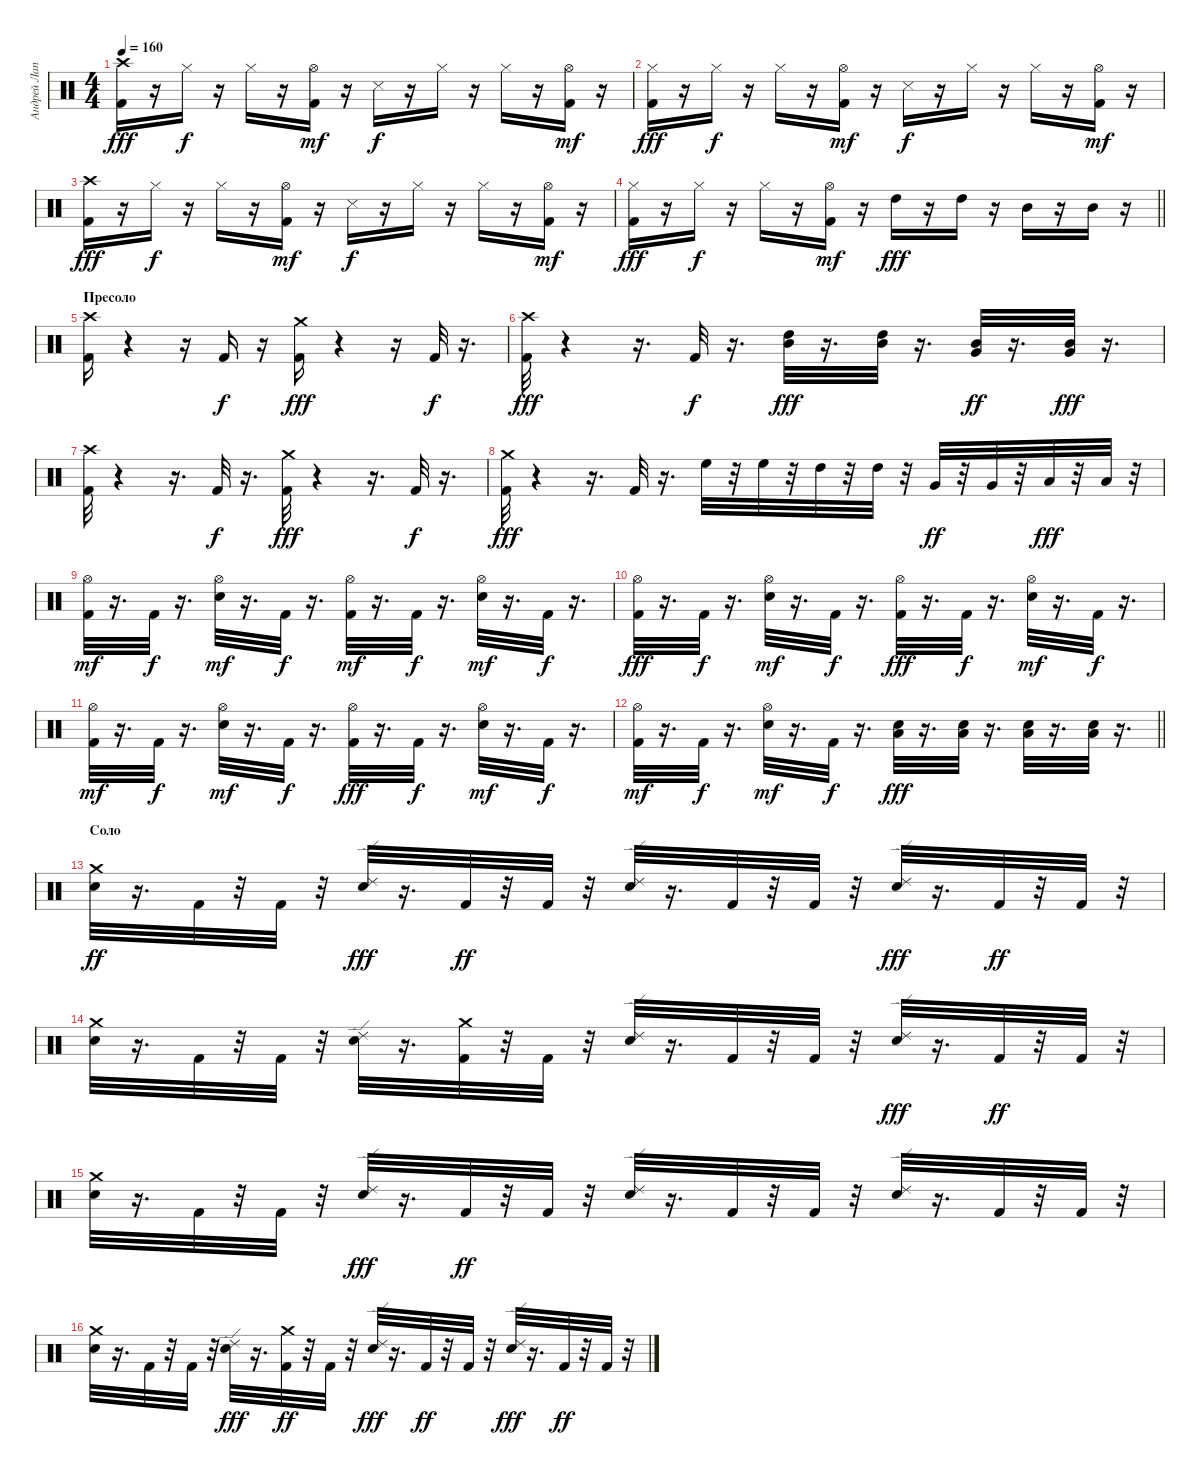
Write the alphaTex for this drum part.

\track ("Андрей Лаптев" "Андрей Лап") {instrument percussion}
\staff {score}
\articulation defaults
\ts (4 4)
\tempo 160
\clef neutral
\ks c
("Crash high (hit)" "Kick (hit) 2").16{dy fff} r.16 "Hi-Hat (closed)".16{dy f} r.16 "Hi-Hat (closed)".16 r.16 ("Kick (hit) 2" "Hi-Hat (open)").16{dy mf} r.16 "Snare (side stick) 3".16{dy f} r.16 "Hi-Hat (closed)".16 r.16 "Hi-Hat (closed)".16 r.16 ("Hi-Hat (open)" "Kick (hit) 2").16{dy mf} r.16 |
("Hi-Hat (closed)" "Kick (hit) 2").16{dy fff} r.16 "Hi-Hat (closed)".16{dy f} r.16 "Hi-Hat (closed)".16 r.16 ("Kick (hit) 2" "Hi-Hat (open)").16{dy mf} r.16 "Snare (side stick) 3".16{dy f} r.16 "Hi-Hat (closed)".16 r.16 "Hi-Hat (closed)".16 r.16 ("Hi-Hat (open)" "Kick (hit) 2").16{dy mf} r.16 |
("Crash high (hit)" "Kick (hit) 2").16{dy fff} r.16 "Hi-Hat (closed)".16{dy f} r.16 "Hi-Hat (closed)".16 r.16 ("Hi-Hat (open)" "Kick (hit) 2").16{dy mf} r.16 "Snare (side stick) 3".16{dy f} r.16 "Hi-Hat (closed)".16 r.16 "Hi-Hat (closed)".16 r.16 ("Kick (hit) 2" "Hi-Hat (open)").16{dy mf} r.16 |
\barLineRight lightlight
("Kick (hit) 2" "Hi-Hat (closed)").16{dy fff} r.16 "Hi-Hat (closed)".16{dy f} r.16 "Hi-Hat (closed)".16 r.16 ("Hi-Hat (open)" "Kick (hit) 2").16{dy mf} r.16 "High Tom (hit)".16{dy fff} r.16 "High Tom (hit)".16 r.16 "Mid Tom (hit)".16 r.16 "Mid Tom (hit)".16 r.16 |
\section ("" "Пресоло")
("Kick (hit) 2" "Crash high (hit)").16 r.4 r.16 "Kick (hit) 2".16{dy f} r.16 ("Kick (hit) 2" "Crash medium (hit)").16{dy fff} r.4 r.16 "Kick (hit) 2".32{dy f} r.16{d} |
("Crash high (hit)" "Kick (hit) 2").32{dy fff} r.4 r.16{d} "Kick (hit) 2".32{dy f} r.16{d} ("Mid Tom (hit)" "High Tom (hit)").32{dy fff} r.16{d} ("Mid Tom (hit)" "High Tom (hit)").32 r.16{d} ("Mid Tom (hit)" "Very Low Tom (hit)").32{dy ff} r.16{d} ("Very Low Tom (hit)" "Mid Tom (hit)").32{dy fff} r.16{d} |
("Kick (hit) 2" "Crash high (hit)").32 r.4 r.16{d} "Kick (hit) 2".32{dy f} r.16{d} ("Crash medium (hit)" "Kick (hit) 2").32{dy fff} r.4 r.16{d} "Kick (hit) 2".32{dy f} r.16{d} |
("Crash medium (hit)" "Kick (hit) 2").32{dy fff} r.4 r.16{d} "Kick (hit) 2".32 r.16{d} "High Floor Tom (hit)".32 r.32 "High Floor Tom (hit)".32 r.32 "High Tom (hit)".32 r.32 "High Tom (hit)".32 r.32 "Very Low Tom (hit)".32{dy ff} r.32 "Very Low Tom (hit)".32 r.32 "Low Tom (hit)".32{dy fff} r.32 "Low Tom (hit)".32 r.32 |
("Kick (hit) 2" "Hi-Hat (open)").32{dy mf} r.16{d} "Kick (hit) 2".32{dy f} r.16{d} ("Hi-Hat (open)" "Electric Snare (hit)").32{dy mf} r.16{d} "Kick (hit) 2".32{dy f} r.16{d} ("Kick (hit) 2" "Hi-Hat (open)").32{dy mf} r.16{d} "Kick (hit) 2".32{dy f} r.16{d} ("Hi-Hat (open)" "Electric Snare (hit)").32{dy mf} r.16{d} "Kick (hit) 2".32{dy f} r.16{d} |
("Hi-Hat (open)" "Kick (hit) 2").32{dy fff} r.16{d} "Kick (hit) 2".32{dy f} r.16{d} ("Electric Snare (hit)" "Hi-Hat (open)").32{dy mf} r.16{d} "Kick (hit) 2".32{dy f} r.16{d} ("Hi-Hat (open)" "Kick (hit) 2").32{dy fff} r.16{d} "Kick (hit) 2".32{dy f} r.16{d} ("Hi-Hat (open)" "Electric Snare (hit)").32{dy mf} r.16{d} "Kick (hit) 2".32{dy f} r.16{d} |
("Kick (hit) 2" "Hi-Hat (open)").32{dy mf} r.16{d} "Kick (hit) 2".32{dy f} r.16{d} ("Hi-Hat (open)" "Electric Snare (hit)").32{dy mf} r.16{d} "Kick (hit) 2".32{dy f} r.16{d} ("Hi-Hat (open)" "Kick (hit) 2").32{dy fff} r.16{d} "Kick (hit) 2".32{dy f} r.16{d} ("Electric Snare (hit)" "Hi-Hat (open)").32{dy mf} r.16{d} "Kick (hit) 2".32{dy f} r.16{d} |
\barLineRight lightlight
("Kick (hit) 2" "Hi-Hat (open)").32{dy mf} r.16{d} "Kick (hit) 2".32{dy f} r.16{d} ("Electric Snare (hit)" "Hi-Hat (open)").32{dy mf} r.16{d} "Kick (hit) 2".32{dy f} r.16{d} ("Low Tom (hit)" "Electric Snare (hit)").32{dy fff} r.16{d} ("Low Tom (hit)" "Electric Snare (hit)").32 r.16{d} ("Electric Snare (hit)" "Low Tom (hit)").32 r.16{d} ("Electric Snare (hit)" "Low Tom (hit)").32 r.16{d} |
\section ("" "Соло")
("Electric Snare (hit)" "Crash medium (hit)").32{dy ff} r.16{d} "Kick (hit) 2".32 r.32 "Kick (hit) 2".32 r.32 ("Electric Snare (hit)" "Ride (edge) 2").32{dy fff} r.16{d} "Kick (hit) 2".32{dy ff} r.32 "Kick (hit) 2".32 r.32 ("Ride (edge) 2" "Electric Snare (hit)").32 r.16{d} "Kick (hit) 2".32 r.32 "Kick (hit) 2".32 r.32 ("Electric Snare (hit)" "Ride (edge) 2").32{dy fff} r.16{d} "Kick (hit) 2".32{dy ff} r.32 "Kick (hit) 2".32 r.32 |
("Crash medium (hit)" "Electric Snare (hit)").32 r.16{d} "Kick (hit) 2".32 r.32 "Kick (hit) 2".32 r.32 ("Ride (edge) 2" "Electric Snare (hit)").32 r.16{d} ("Crash medium (hit)" "Kick (hit) 2").32 r.32 "Kick (hit) 2".32 r.32 ("Ride (edge) 2" "Electric Snare (hit)").32 r.16{d} "Kick (hit) 2".32 r.32 "Kick (hit) 2".32 r.32 ("Electric Snare (hit)" "Ride (edge) 2").32{dy fff} r.16{d} "Kick (hit) 2".32{dy ff} r.32 "Kick (hit) 2".32 r.32 |
("Crash medium (hit)" "Electric Snare (hit)").32 r.16{d} "Kick (hit) 2".32 r.32 "Kick (hit) 2".32 r.32 ("Electric Snare (hit)" "Ride (edge) 2").32{dy fff} r.16{d} "Kick (hit) 2".32{dy ff} r.32 "Kick (hit) 2".32 r.32 ("Ride (edge) 2" "Electric Snare (hit)").32 r.16{d} "Kick (hit) 2".32 r.32 "Kick (hit) 2".32 r.32 ("Ride (edge) 2" "Electric Snare (hit)").32 r.16{d} "Kick (hit) 2".32 r.32 "Kick (hit) 2".32 r.32 |
("Crash medium (hit)" "Electric Snare (hit)").32 r.16{d} "Kick (hit) 2".32 r.32 "Kick (hit) 2".32 r.32 ("Electric Snare (hit)" "Ride (edge) 2").32{dy fff} r.16{d} ("Kick (hit) 2" "Crash medium (hit)").32{dy ff} r.32 "Kick (hit) 2".32 r.32 ("Electric Snare (hit)" "Ride (edge) 2").32{dy fff} r.16{d} "Kick (hit) 2".32{dy ff} r.32 "Kick (hit) 2".32 r.32 ("Electric Snare (hit)" "Ride (edge) 2").32{dy fff} r.16{d} "Kick (hit) 2".32{dy ff} r.32 "Kick (hit) 2".32 r.32
